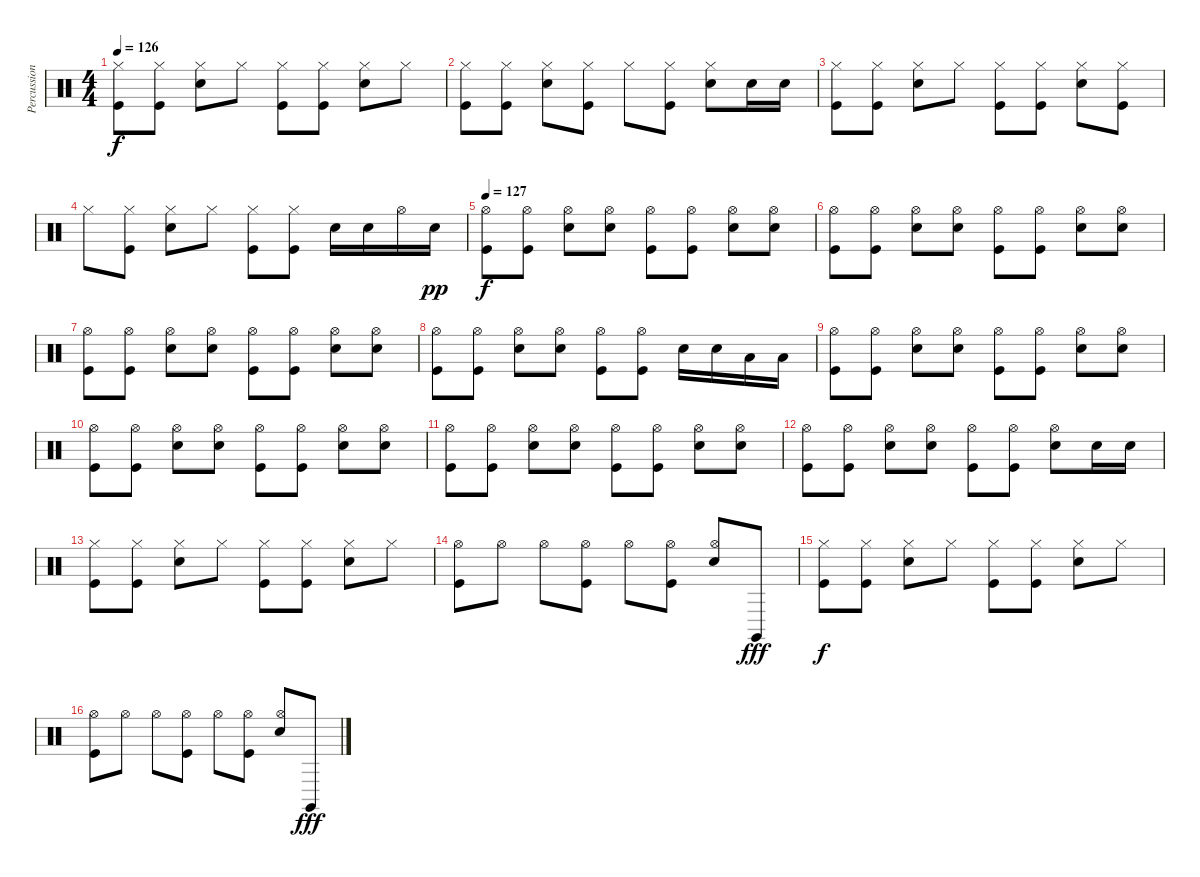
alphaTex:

\track ("Percussion" "Percussion") {instrument percussion}
\staff {score}
\articulation defaults
\ts (4 4)
\tempo 126
\clef neutral
\ks c
("Hi-Hat (closed)" "Kick (hit)").8{dy f} ("Hi-Hat (closed)" "Kick (hit)").8 ("Hi-Hat (closed)" "Snare (hit) 2").8 "Hi-Hat (closed)".8 ("Hi-Hat (closed)" "Kick (hit)").8 ("Hi-Hat (closed)" "Kick (hit)").8 ("Hi-Hat (closed)" "Snare (hit) 2").8 "Hi-Hat (closed)".8 |
("Hi-Hat (closed)" "Kick (hit)").8 ("Hi-Hat (closed)" "Kick (hit)").8 ("Hi-Hat (closed)" "Snare (hit) 2").8 ("Hi-Hat (closed)" "Kick (hit)").8 "Hi-Hat (closed)".8 ("Hi-Hat (closed)" "Kick (hit)").8 ("Hi-Hat (closed)" "Snare (hit) 2").8 "Snare (hit) 2".16 "Snare (hit) 2".16 |
("Hi-Hat (closed)" "Kick (hit)").8 ("Hi-Hat (closed)" "Kick (hit)").8 ("Hi-Hat (closed)" "Snare (hit) 2").8 "Hi-Hat (closed)".8 ("Hi-Hat (closed)" "Kick (hit)").8 ("Hi-Hat (closed)" "Kick (hit)").8 ("Hi-Hat (closed)" "Snare (hit) 2").8 ("Hi-Hat (closed)" "Kick (hit)").8 |
"Hi-Hat (closed)".8 ("Hi-Hat (closed)" "Kick (hit)").8 ("Hi-Hat (closed)" "Snare (hit) 2").8 "Hi-Hat (closed)".8 ("Hi-Hat (closed)" "Kick (hit)").8 ("Hi-Hat (closed)" "Kick (hit)").8 "Snare (hit) 2".16 "Snare (hit) 2".16 "Hi-Hat (open)".16 "Snare (hit) 2".16{dy pp} |
\tempo 127
("Hi-Hat (open)" "Kick (hit)").8{dy f} ("Hi-Hat (open)" "Kick (hit)").8 ("Hi-Hat (open)" "Snare (hit) 2").8 ("Hi-Hat (open)" "Snare (hit) 2").8 ("Hi-Hat (open)" "Kick (hit)").8 ("Hi-Hat (open)" "Kick (hit)").8 ("Hi-Hat (open)" "Snare (hit) 2").8 ("Hi-Hat (open)" "Snare (hit) 2").8 |
("Hi-Hat (open)" "Kick (hit)").8 ("Hi-Hat (open)" "Kick (hit)").8 ("Hi-Hat (open)" "Snare (hit) 2").8 ("Hi-Hat (open)" "Snare (hit) 2").8 ("Hi-Hat (open)" "Kick (hit)").8 ("Hi-Hat (open)" "Kick (hit)").8 ("Hi-Hat (open)" "Snare (hit) 2").8 ("Hi-Hat (open)" "Snare (hit) 2").8 |
("Hi-Hat (open)" "Kick (hit)").8 ("Hi-Hat (open)" "Kick (hit)").8 ("Hi-Hat (open)" "Snare (hit) 2").8 ("Hi-Hat (open)" "Snare (hit) 2").8 ("Hi-Hat (open)" "Kick (hit)").8 ("Hi-Hat (open)" "Kick (hit)").8 ("Hi-Hat (open)" "Snare (hit) 2").8 ("Hi-Hat (open)" "Snare (hit) 2").8 |
("Hi-Hat (open)" "Kick (hit)").8 ("Hi-Hat (open)" "Kick (hit)").8 ("Hi-Hat (open)" "Snare (hit) 2").8 ("Hi-Hat (open)" "Snare (hit) 2").8 ("Hi-Hat (open)" "Kick (hit)").8 ("Hi-Hat (open)" "Kick (hit)").8 "Snare (hit) 2".16 "Snare (hit) 2".16 "Low Tom (hit)".16 "Low Tom (hit)".16 |
("Hi-Hat (open)" "Kick (hit)").8 ("Hi-Hat (open)" "Kick (hit)").8 ("Hi-Hat (open)" "Snare (hit) 2").8 ("Hi-Hat (open)" "Snare (hit) 2").8 ("Hi-Hat (open)" "Kick (hit)").8 ("Hi-Hat (open)" "Kick (hit)").8 ("Hi-Hat (open)" "Snare (hit) 2").8 ("Hi-Hat (open)" "Snare (hit) 2").8 |
("Hi-Hat (open)" "Kick (hit)").8 ("Hi-Hat (open)" "Kick (hit)").8 ("Hi-Hat (open)" "Snare (hit) 2").8 ("Hi-Hat (open)" "Snare (hit) 2").8 ("Hi-Hat (open)" "Kick (hit)").8 ("Hi-Hat (open)" "Kick (hit)").8 ("Hi-Hat (open)" "Snare (hit) 2").8 ("Hi-Hat (open)" "Snare (hit) 2").8 |
("Hi-Hat (open)" "Kick (hit)").8 ("Hi-Hat (open)" "Kick (hit)").8 ("Hi-Hat (open)" "Snare (hit) 2").8 ("Hi-Hat (open)" "Snare (hit) 2").8 ("Hi-Hat (open)" "Kick (hit)").8 ("Hi-Hat (open)" "Kick (hit)").8 ("Hi-Hat (open)" "Snare (hit) 2").8 ("Hi-Hat (open)" "Snare (hit) 2").8 |
("Hi-Hat (open)" "Kick (hit)").8 ("Hi-Hat (open)" "Kick (hit)").8 ("Hi-Hat (open)" "Snare (hit) 2").8 ("Hi-Hat (open)" "Snare (hit) 2").8 ("Hi-Hat (open)" "Kick (hit)").8 ("Hi-Hat (open)" "Kick (hit)").8 ("Hi-Hat (open)" "Snare (hit) 2").8 "Snare (hit) 2".16 "Snare (hit) 2".16 |
("Hi-Hat (closed)" "Kick (hit)").8 ("Hi-Hat (closed)" "Kick (hit)").8 ("Hi-Hat (closed)" "Snare (hit) 2").8 "Hi-Hat (closed)".8 ("Hi-Hat (closed)" "Kick (hit)").8 ("Hi-Hat (closed)" "Kick (hit)").8 ("Hi-Hat (closed)" "Snare (hit) 2").8 "Hi-Hat (closed)".8 |
("Hi-Hat (open)" "Kick (hit)").8 "Hi-Hat (open)".8 "Hi-Hat (open)".8 ("Hi-Hat (open)" "Kick (hit)").8 "Hi-Hat (open)".8 ("Hi-Hat (open)" "Kick (hit)").8 ("Hi-Hat (open)" "Snare (hit) 2").8 "Claves (hit)".8{dy fff} |
("Hi-Hat (closed)" "Kick (hit)").8{dy f} ("Hi-Hat (closed)" "Kick (hit)").8 ("Hi-Hat (closed)" "Snare (hit) 2").8 "Hi-Hat (closed)".8 ("Hi-Hat (closed)" "Kick (hit)").8 ("Hi-Hat (closed)" "Kick (hit)").8 ("Hi-Hat (closed)" "Snare (hit) 2").8 "Hi-Hat (closed)".8 |
("Hi-Hat (open)" "Kick (hit)").8 "Hi-Hat (open)".8 "Hi-Hat (open)".8 ("Hi-Hat (open)" "Kick (hit)").8 "Hi-Hat (open)".8 ("Hi-Hat (open)" "Kick (hit)").8 ("Hi-Hat (open)" "Snare (hit) 2").8 "Claves (hit)".8{dy fff}
